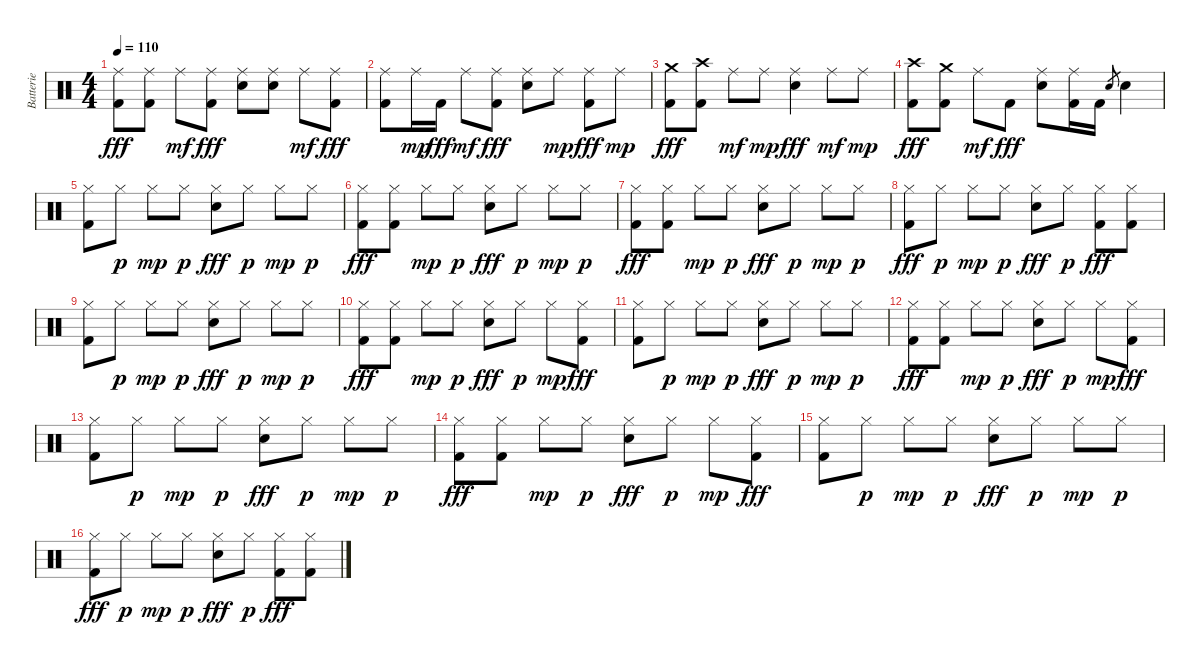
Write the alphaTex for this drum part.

\track ("Batterie" "Batterie") {instrument percussion}
\staff {score}
\articulation defaults
\ts (4 4)
\tempo 110
\clef neutral
\ks c
("Ride (middle)" "Kick (hit) 2").8{dy fff} ("Ride (middle)" "Kick (hit) 2").8 "Ride (middle)".8{dy mf} ("Ride (middle)" "Kick (hit) 2").8{dy fff} ("Ride (middle)" "Electric Snare (hit)").8 ("Ride (middle)" "Electric Snare (hit)").8 "Ride (middle)".8{dy mf} ("Ride (middle)" "Kick (hit) 2").8{dy fff} |
("Ride (middle)" "Kick (hit) 2").8 "Ride (middle)".16{dy mp} "Kick (hit) 2".16{dy fff} "Ride (middle)".8{dy mf} ("Ride (middle)" "Kick (hit) 2").8{dy fff} ("Ride (middle)" "Electric Snare (hit)").8 "Ride (middle)".8{dy mp} ("Ride (middle)" "Kick (hit) 2").8{dy fff} "Ride (middle)".8{dy mp} |
("Crash medium (hit)" "Kick (hit) 2").8{dy fff} ("Crash high (hit)" "Kick (hit) 2").8 "Ride (middle)".8{dy mf} "Ride (middle)".8{dy mp} ("Ride (middle)" "Electric Snare (hit)").4{dy fff} "Ride (middle)".8{dy mf} "Ride (middle)".8{dy mp} |
("Crash high (hit)" "Kick (hit) 2").8{dy fff} ("Crash medium (hit)" "Kick (hit) 2").8 "Ride (middle)".8{dy mf} "Kick (hit) 2".8{dy fff} ("Ride (middle)" "Electric Snare (hit)").8 ("Ride (middle)" "Kick (hit) 2").16 "Kick (hit) 2".16 "Electric Snare (hit)".8{gr} "Electric Snare (hit)".4 |
("Hi-Hat (closed)" "Kick (hit) 2").8 "Hi-Hat (closed)".8{dy p} "Hi-Hat (closed)".8{dy mp} "Hi-Hat (closed)".8{dy p} ("Hi-Hat (closed)" "Electric Snare (hit)").8{dy fff} "Hi-Hat (closed)".8{dy p} "Hi-Hat (closed)".8{dy mp} "Hi-Hat (closed)".8{dy p} |
("Hi-Hat (closed)" "Kick (hit) 2").8{dy fff} ("Hi-Hat (closed)" "Kick (hit) 2").8 "Hi-Hat (closed)".8{dy mp} "Hi-Hat (closed)".8{dy p} ("Hi-Hat (closed)" "Electric Snare (hit)").8{dy fff} "Hi-Hat (closed)".8{dy p} "Hi-Hat (closed)".8{dy mp} "Hi-Hat (closed)".8{dy p} |
("Hi-Hat (closed)" "Kick (hit) 2").8{dy fff} ("Hi-Hat (closed)" "Kick (hit) 2").8 "Hi-Hat (closed)".8{dy mp} "Hi-Hat (closed)".8{dy p} ("Hi-Hat (closed)" "Electric Snare (hit)").8{dy fff} "Hi-Hat (closed)".8{dy p} "Hi-Hat (closed)".8{dy mp} "Hi-Hat (closed)".8{dy p} |
("Hi-Hat (closed)" "Kick (hit) 2").8{dy fff} "Hi-Hat (closed)".8{dy p} "Hi-Hat (closed)".8{dy mp} "Hi-Hat (closed)".8{dy p} ("Hi-Hat (closed)" "Electric Snare (hit)").8{dy fff} "Hi-Hat (closed)".8{dy p} ("Hi-Hat (closed)" "Kick (hit) 2").8{dy fff} ("Hi-Hat (closed)" "Kick (hit) 2").8 |
("Hi-Hat (closed)" "Kick (hit) 2").8 "Hi-Hat (closed)".8{dy p} "Hi-Hat (closed)".8{dy mp} "Hi-Hat (closed)".8{dy p} ("Hi-Hat (closed)" "Electric Snare (hit)").8{dy fff} "Hi-Hat (closed)".8{dy p} "Hi-Hat (closed)".8{dy mp} "Hi-Hat (closed)".8{dy p} |
("Hi-Hat (closed)" "Kick (hit) 2").8{dy fff} ("Hi-Hat (closed)" "Kick (hit) 2").8 "Hi-Hat (closed)".8{dy mp} "Hi-Hat (closed)".8{dy p} ("Hi-Hat (closed)" "Electric Snare (hit)").8{dy fff} "Hi-Hat (closed)".8{dy p} "Hi-Hat (closed)".8{dy mp} ("Hi-Hat (closed)" "Kick (hit) 2").8{dy fff} |
("Hi-Hat (closed)" "Kick (hit) 2").8 "Hi-Hat (closed)".8{dy p} "Hi-Hat (closed)".8{dy mp} "Hi-Hat (closed)".8{dy p} ("Hi-Hat (closed)" "Electric Snare (hit)").8{dy fff} "Hi-Hat (closed)".8{dy p} "Hi-Hat (closed)".8{dy mp} "Hi-Hat (closed)".8{dy p} |
("Hi-Hat (closed)" "Kick (hit) 2").8{dy fff} ("Hi-Hat (closed)" "Kick (hit) 2").8 "Hi-Hat (closed)".8{dy mp} "Hi-Hat (closed)".8{dy p} ("Hi-Hat (closed)" "Electric Snare (hit)").8{dy fff} "Hi-Hat (closed)".8{dy p} "Hi-Hat (closed)".8{dy mp} ("Hi-Hat (closed)" "Kick (hit) 2").8{dy fff} |
("Hi-Hat (closed)" "Kick (hit) 2").8 "Hi-Hat (closed)".8{dy p} "Hi-Hat (closed)".8{dy mp} "Hi-Hat (closed)".8{dy p} ("Hi-Hat (closed)" "Electric Snare (hit)").8{dy fff} "Hi-Hat (closed)".8{dy p} "Hi-Hat (closed)".8{dy mp} "Hi-Hat (closed)".8{dy p} |
("Hi-Hat (closed)" "Kick (hit) 2").8{dy fff} ("Hi-Hat (closed)" "Kick (hit) 2").8 "Hi-Hat (closed)".8{dy mp} "Hi-Hat (closed)".8{dy p} ("Hi-Hat (closed)" "Electric Snare (hit)").8{dy fff} "Hi-Hat (closed)".8{dy p} "Hi-Hat (closed)".8{dy mp} ("Hi-Hat (closed)" "Kick (hit) 2").8{dy fff} |
("Hi-Hat (closed)" "Kick (hit) 2").8 "Hi-Hat (closed)".8{dy p} "Hi-Hat (closed)".8{dy mp} "Hi-Hat (closed)".8{dy p} ("Hi-Hat (closed)" "Electric Snare (hit)").8{dy fff} "Hi-Hat (closed)".8{dy p} "Hi-Hat (closed)".8{dy mp} "Hi-Hat (closed)".8{dy p} |
("Hi-Hat (closed)" "Kick (hit) 2").8{dy fff} "Hi-Hat (closed)".8{dy p} "Hi-Hat (closed)".8{dy mp} "Hi-Hat (closed)".8{dy p} ("Hi-Hat (closed)" "Electric Snare (hit)").8{dy fff} "Hi-Hat (closed)".8{dy p} ("Hi-Hat (closed)" "Kick (hit) 2").8{dy fff} ("Hi-Hat (closed)" "Kick (hit) 2").8
